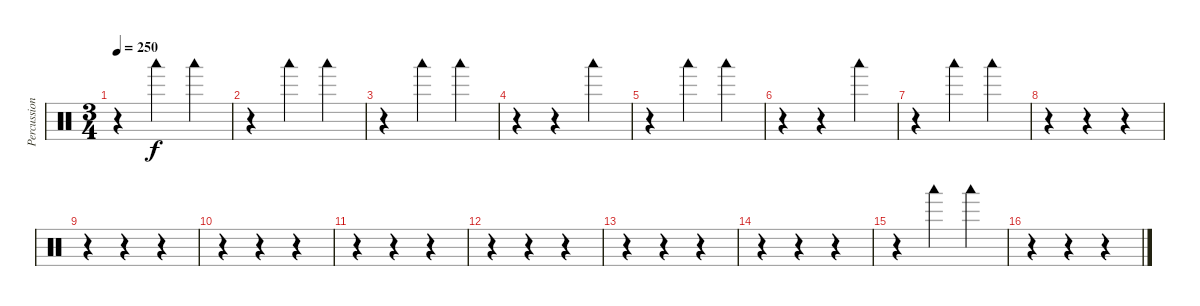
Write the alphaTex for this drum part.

\track ("Percussions" "Percussion") {instrument percussion}
\staff {score}
\articulation defaults
\ts (3 4)
\tempo 250
\clef neutral
\ks c
r.4{dy f} "Woodblock low (hit)".4 "Woodblock low (hit)".4 |
r.4 "Woodblock low (hit)".4 "Woodblock low (hit)".4 |
r.4 "Woodblock low (hit)".4 "Woodblock low (hit)".4 |
r.4 r.4 "Woodblock low (hit)".4 |
r.4 "Woodblock low (hit)".4 "Woodblock low (hit)".4 |
r.4 r.4 "Woodblock low (hit)".4 |
r.4 "Woodblock low (hit)".4 "Woodblock low (hit)".4 |
r.4 r.4 r.4 |
r.4 r.4 r.4 |
r.4 r.4 r.4 |
r.4 r.4 r.4 |
r.4 r.4 r.4 |
r.4 r.4 r.4 |
r.4 r.4 r.4 |
r.4 "Woodblock low (hit)".4 "Woodblock low (hit)".4 |
r.4 r.4 r.4
